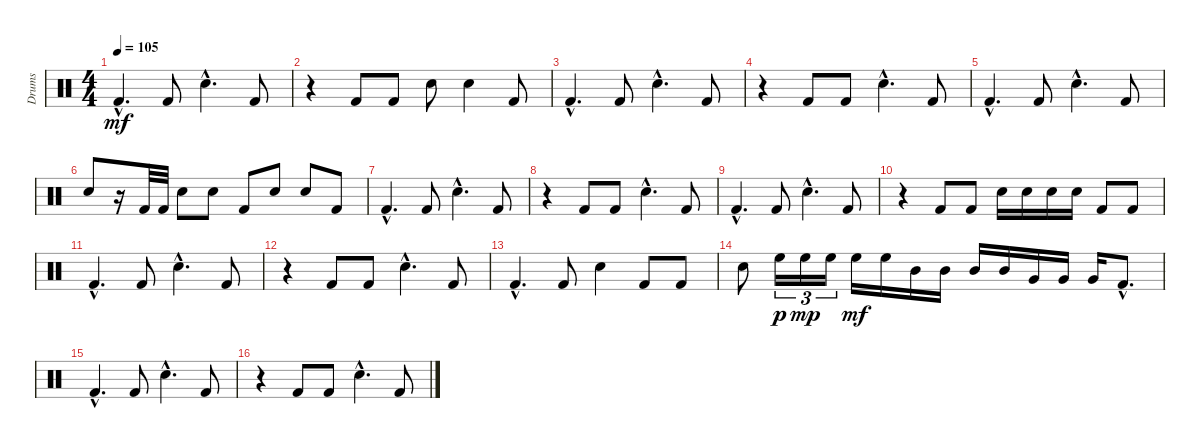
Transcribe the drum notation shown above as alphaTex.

\track ("Drums" "Drums") {instrument percussion}
\staff {score}
\articulation defaults
\ts (4 4)
\tempo 105
\clef neutral
\ks c "Kick (hit) 2"{hac}.4{d dy mf} "Kick (hit) 2".8 "Snare (hit) 2"{hac}.4{d} "Kick (hit) 2".8
|
r.4 "Kick (hit) 2".8 "Kick (hit) 2".8 "Snare (hit) 2".8 "Snare (hit) 2".4 "Kick (hit) 2".8 |
"Kick (hit) 2"{hac}.4{d} "Kick (hit) 2".8 "Snare (hit) 2"{hac}.4{d} "Kick (hit) 2".8 |
r.4 "Kick (hit) 2".8 "Kick (hit) 2".8 "Snare (hit) 2"{hac}.4{d} "Kick (hit) 2".8 |
"Kick (hit) 2"{hac}.4{d} "Kick (hit) 2".8 "Snare (hit) 2"{hac}.4{d} "Kick (hit) 2".8 |
"Snare (hit) 2".8 r.16 "Kick (hit) 2".32 "Kick (hit) 2".32 "Snare (hit) 2".8 "Snare (hit) 2".8 "Kick (hit) 2".8 "Snare (hit) 2".8 "Snare (hit) 2".8 "Kick (hit) 2".8 |
"Kick (hit) 2"{hac}.4{d} "Kick (hit) 2".8 "Snare (hit) 2"{hac}.4{d} "Kick (hit) 2".8 |
r.4 "Kick (hit) 2".8 "Kick (hit) 2".8 "Snare (hit) 2"{hac}.4{d} "Kick (hit) 2".8 |
"Kick (hit) 2"{hac}.4{d} "Kick (hit) 2".8 "Snare (hit) 2"{hac}.4{d} "Kick (hit) 2".8 |
r.4 "Kick (hit) 2".8 "Kick (hit) 2".8 "Snare (hit) 2".16 "Snare (hit) 2".16 "Snare (hit) 2".16 "Snare (hit) 2".16 "Kick (hit) 2".8 "Kick (hit) 2".8 |
"Kick (hit) 2"{hac}.4{d} "Kick (hit) 2".8 "Snare (hit) 2"{hac}.4{d} "Kick (hit) 2".8 |
r.4 "Kick (hit) 2".8 "Kick (hit) 2".8 "Snare (hit) 2"{hac}.4{d} "Kick (hit) 2".8 |
"Kick (hit) 2"{hac}.4{d} "Kick (hit) 2".8 "Snare (hit) 2".4 "Kick (hit) 2".8 "Kick (hit) 2".8 |
"Snare (hit) 2".8 "High Floor Tom (hit)".16{tu (3 2) dy p} "High Floor Tom (hit)".16{tu (3 2) dy mp} "High Floor Tom (hit)".16{tu (3 2)} "High Floor Tom (hit)".16{dy mf} "High Floor Tom (hit)".16 "Mid Tom (hit)".16 "Mid Tom (hit)".16 "Mid Tom (hit)".16 "Mid Tom (hit)".16 "Very Low Tom (hit)".16 "Very Low Tom (hit)".16 "Very Low Tom (hit)".16 "Kick (hit) 2"{hac}.8{d} |
"Kick (hit) 2"{hac}.4{d} "Kick (hit) 2".8 "Snare (hit) 2"{hac}.4{d} "Kick (hit) 2".8 |
r.4 "Kick (hit) 2".8 "Kick (hit) 2".8 "Snare (hit) 2"{hac}.4{d} "Kick (hit) 2".8
